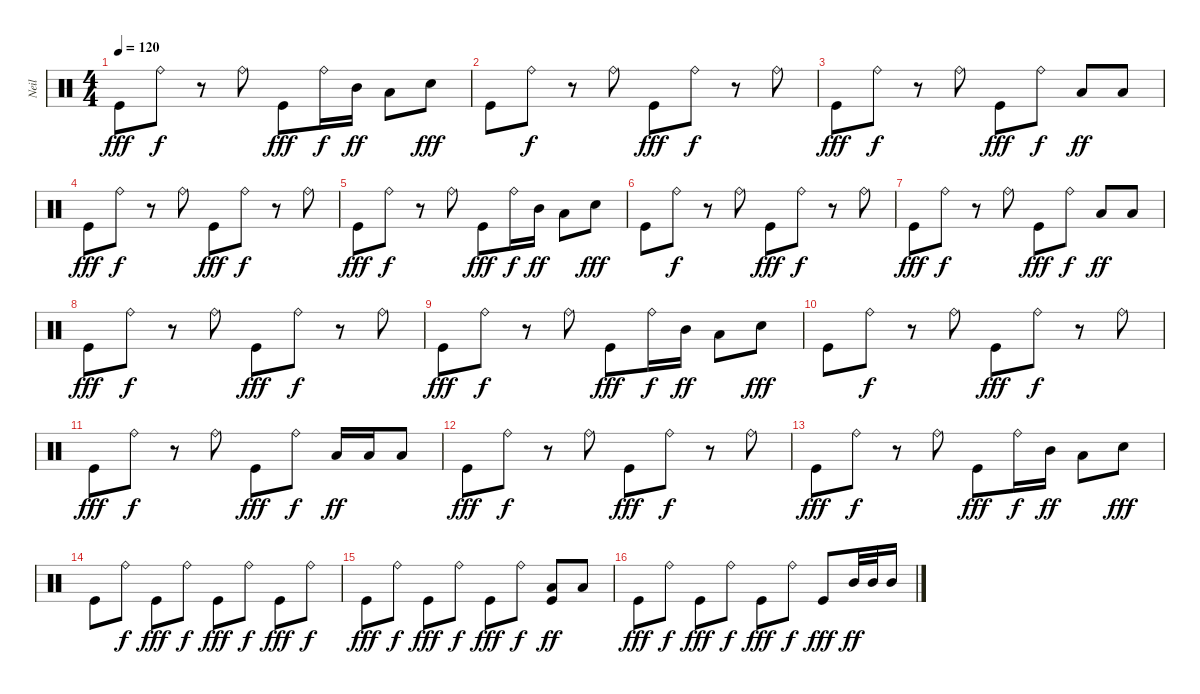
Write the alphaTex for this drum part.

\track ("Neil" "Neil") {instrument percussion}
\staff {score}
\articulation defaults
\ts (4 4)
\tempo 120
\clef neutral
\ks c "Kick (hit)".8{dy fff} "Ride (bell)".8{dy f}
r.8 "Ride (bell)".8 "Kick (hit)".8{dy fff} "Ride (bell)".16{dy f} "Mid Tom (hit)".16{dy ff} "Low Tom (hit)".8 "Snare (hit) 2".8{dy fff} |
"Kick (hit)".8 "Ride (bell)".8{dy f} r.8 "Ride (bell)".8 "Kick (hit)".8{dy fff} "Ride (bell)".8{dy f} r.8 "Ride (bell)".8 |
"Kick (hit)".8{dy fff} "Ride (bell)".8{dy f} r.8 "Ride (bell)".8 "Kick (hit)".8{dy fff} "Ride (bell)".8{dy f} "Low Tom (hit)".8{dy ff} "Low Tom (hit)".8 |
"Kick (hit)".8{dy fff} "Ride (bell)".8{dy f} r.8 "Ride (bell)".8 "Kick (hit)".8{dy fff} "Ride (bell)".8{dy f} r.8 "Ride (bell)".8 |
"Kick (hit)".8{dy fff} "Ride (bell)".8{dy f} r.8 "Ride (bell)".8 "Kick (hit)".8{dy fff} "Ride (bell)".16{dy f} "Mid Tom (hit)".16{dy ff} "Low Tom (hit)".8 "Snare (hit) 2".8{dy fff} |
"Kick (hit)".8 "Ride (bell)".8{dy f} r.8 "Ride (bell)".8 "Kick (hit)".8{dy fff} "Ride (bell)".8{dy f} r.8 "Ride (bell)".8 |
"Kick (hit)".8{dy fff} "Ride (bell)".8{dy f} r.8 "Ride (bell)".8 "Kick (hit)".8{dy fff} "Ride (bell)".8{dy f} "Low Tom (hit)".8{dy ff} "Low Tom (hit)".8 |
"Kick (hit)".8{dy fff} "Ride (bell)".8{dy f} r.8 "Ride (bell)".8 "Kick (hit)".8{dy fff} "Ride (bell)".8{dy f} r.8 "Ride (bell)".8 |
"Kick (hit)".8{dy fff} "Ride (bell)".8{dy f} r.8 "Ride (bell)".8 "Kick (hit)".8{dy fff} "Ride (bell)".16{dy f} "Mid Tom (hit)".16{dy ff} "Low Tom (hit)".8 "Snare (hit) 2".8{dy fff} |
"Kick (hit)".8 "Ride (bell)".8{dy f} r.8 "Ride (bell)".8 "Kick (hit)".8{dy fff} "Ride (bell)".8{dy f} r.8 "Ride (bell)".8 |
"Kick (hit)".8{dy fff} "Ride (bell)".8{dy f} r.8 "Ride (bell)".8 "Kick (hit)".8{dy fff} "Ride (bell)".8{dy f} "Low Tom (hit)".16{dy ff} "Low Tom (hit)".16 "Low Tom (hit)".8 |
"Kick (hit)".8{dy fff} "Ride (bell)".8{dy f} r.8 "Ride (bell)".8 "Kick (hit)".8{dy fff} "Ride (bell)".8{dy f} r.8 "Ride (bell)".8 |
"Kick (hit)".8{dy fff} "Ride (bell)".8{dy f} r.8 "Ride (bell)".8 "Kick (hit)".8{dy fff} "Ride (bell)".16{dy f} "Mid Tom (hit)".16{dy ff} "Low Tom (hit)".8 "Snare (hit) 2".8{dy fff} |
"Kick (hit)".8 "Ride (bell)".8{dy f} "Kick (hit)".8{dy fff} "Ride (bell)".8{dy f} "Kick (hit)".8{dy fff} "Ride (bell)".8{dy f} "Kick (hit)".8{dy fff} "Ride (bell)".8{dy f} |
"Kick (hit)".8{dy fff} "Ride (bell)".8{dy f} "Kick (hit)".8{dy fff} "Ride (bell)".8{dy f} "Kick (hit)".8{dy fff} "Ride (bell)".8{dy f} ("Kick (hit)" "Low Tom (hit)").8{dy ff} "Low Tom (hit)".8 |
"Kick (hit)".8{dy fff} "Ride (bell)".8{dy f} "Kick (hit)".8{dy fff} "Ride (bell)".8{dy f} "Kick (hit)".8{dy fff} "Ride (bell)".8{dy f} "Kick (hit)".8{dy fff} "Mid Tom (hit)".32{dy ff} "Mid Tom (hit)".32 "Mid Tom (hit)".16
